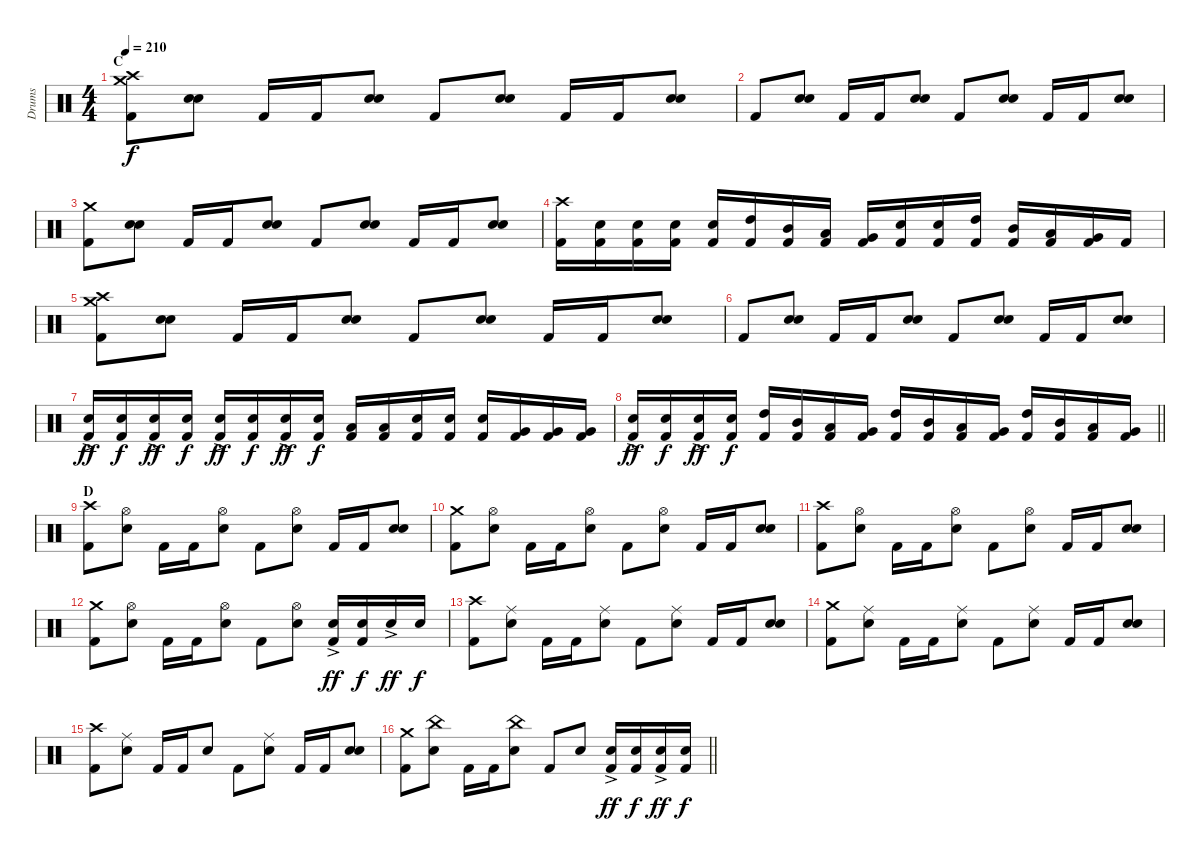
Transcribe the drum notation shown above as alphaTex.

\track ("Drums" "Drums") {instrument percussion}
\staff {score}
\articulation defaults
\ts (4 4)
\section ("" "C")
\tempo 210
\clef neutral
\ks c
("Crash medium (hit)" "Crash high (hit)" "Kick (hit) 2").8{dy f} ("Electric Snare (hit)" "Electric Snare (hit)").8{bu 60} "Kick (hit) 2".16 "Kick (hit) 2".16 ("Electric Snare (hit)" "Electric Snare (hit)").8{bu 60} "Kick (hit) 2".8 ("Electric Snare (hit)" "Electric Snare (hit)").8{bu 60} "Kick (hit) 2".16 "Kick (hit) 2".16 ("Electric Snare (hit)" "Electric Snare (hit)").8{bu 60} |
"Kick (hit) 2".8 ("Electric Snare (hit)" "Electric Snare (hit)").8{bu 60} "Kick (hit) 2".16 "Kick (hit) 2".16 ("Electric Snare (hit)" "Electric Snare (hit)").8{bu 60} "Kick (hit) 2".8 ("Electric Snare (hit)" "Electric Snare (hit)").8{bu 60} "Kick (hit) 2".16 "Kick (hit) 2".16 ("Electric Snare (hit)" "Electric Snare (hit)").8{bu 60} |
("Crash medium (hit)" "Kick (hit) 2").8 ("Electric Snare (hit)" "Electric Snare (hit)").8{bu 60} "Kick (hit) 2".16 "Kick (hit) 2".16 ("Electric Snare (hit)" "Electric Snare (hit)").8{bu 60} "Kick (hit) 2".8 ("Electric Snare (hit)" "Electric Snare (hit)").8{bu 60} "Kick (hit) 2".16 "Kick (hit) 2".16 ("Electric Snare (hit)" "Electric Snare (hit)").8{bu 60} |
("Crash high (hit)" "Kick (hit) 2").16 ("Electric Snare (hit)" "Kick (hit) 2").16 ("Electric Snare (hit)" "Kick (hit) 2").16 ("Electric Snare (hit)" "Kick (hit) 2").16 ("Electric Snare (hit)" "Kick (hit) 2").16 ("High Tom (hit)" "Kick (hit) 2").16 ("Mid Tom (hit)" "Kick (hit) 2").16 ("Low Tom (hit)" "Kick (hit) 2").16 ("Very Low Tom (hit)" "Kick (hit) 2").16 ("Electric Snare (hit)" "Kick (hit) 2").16 ("Electric Snare (hit)" "Kick (hit) 2").16 ("High Tom (hit)" "Kick (hit) 2").16 ("Mid Tom (hit)" "Kick (hit) 2").16 ("Low Tom (hit)" "Kick (hit) 2").16 ("Very Low Tom (hit)" "Kick (hit) 2").16 "Kick (hit) 2".16 |
("Crash medium (hit)" "Crash high (hit)" "Kick (hit) 2").8 ("Electric Snare (hit)" "Electric Snare (hit)").8{bu 60} "Kick (hit) 2".16 "Kick (hit) 2".16 ("Electric Snare (hit)" "Electric Snare (hit)").8{bu 60} "Kick (hit) 2".8 ("Electric Snare (hit)" "Electric Snare (hit)").8{bu 60} "Kick (hit) 2".16 "Kick (hit) 2".16 ("Electric Snare (hit)" "Electric Snare (hit)").8{bu 60} |
"Kick (hit) 2".8 ("Electric Snare (hit)" "Electric Snare (hit)").8{bu 60} "Kick (hit) 2".16 "Kick (hit) 2".16 ("Electric Snare (hit)" "Electric Snare (hit)").8{bu 60} "Kick (hit) 2".8 ("Electric Snare (hit)" "Electric Snare (hit)").8{bu 60} "Kick (hit) 2".16 "Kick (hit) 2".16 ("Electric Snare (hit)" "Electric Snare (hit)").8{bu 60} |
("Electric Snare (hit)"{ac} "Kick (hit) 2").16{dy ff} ("Electric Snare (hit)" "Kick (hit) 2").16{dy f} ("Electric Snare (hit)"{ac} "Kick (hit) 2").16{dy ff} ("Electric Snare (hit)" "Kick (hit) 2").16{dy f} ("Electric Snare (hit)"{ac} "Kick (hit) 2").16{dy ff} ("Electric Snare (hit)" "Kick (hit) 2").16{dy f} ("Electric Snare (hit)"{ac} "Kick (hit) 2").16{dy ff} ("Electric Snare (hit)" "Kick (hit) 2").16{dy f} ("Low Tom (hit)" "Kick (hit) 2").16 ("Low Tom (hit)" "Kick (hit) 2").16 ("Electric Snare (hit)" "Kick (hit) 2").16 ("Electric Snare (hit)" "Kick (hit) 2").16 ("Electric Snare (hit)" "Kick (hit) 2").16 ("Very Low Tom (hit)" "Kick (hit) 2").16 ("Very Low Tom (hit)" "Kick (hit) 2").16 ("Very Low Tom (hit)" "Kick (hit) 2").16 |
\barLineRight lightlight
("Electric Snare (hit)"{ac} "Kick (hit) 2").16{dy ff} ("Electric Snare (hit)" "Kick (hit) 2").16{dy f} ("Electric Snare (hit)"{ac} "Kick (hit) 2").16{dy ff} ("Electric Snare (hit)" "Kick (hit) 2").16{dy f} ("High Tom (hit)" "Kick (hit) 2").16 ("Mid Tom (hit)" "Kick (hit) 2").16 ("Low Tom (hit)" "Kick (hit) 2").16 ("Very Low Tom (hit)" "Kick (hit) 2").16 ("High Tom (hit)" "Kick (hit) 2").16 ("Mid Tom (hit)" "Kick (hit) 2").16 ("Low Tom (hit)" "Kick (hit) 2").16 ("Very Low Tom (hit)" "Kick (hit) 2").16 ("High Tom (hit)" "Kick (hit) 2").16 ("Mid Tom (hit)" "Kick (hit) 2").16 ("Low Tom (hit)" "Kick (hit) 2").16 ("Very Low Tom (hit)" "Kick (hit) 2").16 |
\section ("" "D")
("Crash high (hit)" "Kick (hit) 2").8 ("Hi-Hat (open)" "Electric Snare (hit)").8 "Kick (hit) 2".16 "Kick (hit) 2".16 ("Hi-Hat (open)" "Electric Snare (hit)").8 "Kick (hit) 2".8 ("Hi-Hat (open)" "Electric Snare (hit)").8 "Kick (hit) 2".16 "Kick (hit) 2".16 ("Electric Snare (hit)" "Electric Snare (hit)").8 |
("Crash medium (hit)" "Kick (hit) 2").8 ("Hi-Hat (open)" "Electric Snare (hit)").8 "Kick (hit) 2".16 "Kick (hit) 2".16 ("Hi-Hat (open)" "Electric Snare (hit)").8 "Kick (hit) 2".8 ("Hi-Hat (open)" "Electric Snare (hit)").8 "Kick (hit) 2".16 "Kick (hit) 2".16 ("Electric Snare (hit)" "Electric Snare (hit)").8 |
("Crash high (hit)" "Kick (hit) 2").8 ("Hi-Hat (open)" "Electric Snare (hit)").8 "Kick (hit) 2".16 "Kick (hit) 2".16 ("Hi-Hat (open)" "Electric Snare (hit)").8 "Kick (hit) 2".8 ("Hi-Hat (open)" "Electric Snare (hit)").8 "Kick (hit) 2".16 "Kick (hit) 2".16 ("Electric Snare (hit)" "Electric Snare (hit)").8 |
("Crash medium (hit)" "Kick (hit) 2").8 ("Hi-Hat (open)" "Electric Snare (hit)").8 "Kick (hit) 2".16 "Kick (hit) 2".16 ("Hi-Hat (open)" "Electric Snare (hit)").8 "Kick (hit) 2".8 ("Hi-Hat (open)" "Electric Snare (hit)").8 ("Electric Snare (hit)"{ac} "Kick (hit) 2").16{dy ff} ("Electric Snare (hit)" "Kick (hit) 2").16{dy f} "Electric Snare (hit)"{ac}.16{dy ff} "Electric Snare (hit)".16{dy f} |
("Crash high (hit)" "Kick (hit) 2").8 ("Ride (middle)" "Electric Snare (hit)").8 "Kick (hit) 2".16 "Kick (hit) 2".16 ("Ride (middle)" "Electric Snare (hit)").8 "Kick (hit) 2".8 ("Ride (middle)" "Electric Snare (hit)").8 "Kick (hit) 2".16 "Kick (hit) 2".16 ("Electric Snare (hit)" "Electric Snare (hit)").8 |
("Crash medium (hit)" "Kick (hit) 2").8 ("Ride (middle)" "Electric Snare (hit)").8 "Kick (hit) 2".16 "Kick (hit) 2".16 ("Ride (middle)" "Electric Snare (hit)").8 "Kick (hit) 2".8 ("Ride (middle)" "Electric Snare (hit)").8 "Kick (hit) 2".16 "Kick (hit) 2".16 ("Electric Snare (hit)" "Electric Snare (hit)").8 |
("Crash high (hit)" "Kick (hit) 2").8 ("Ride (middle)" "Electric Snare (hit)").8 "Kick (hit) 2".16 "Kick (hit) 2".16 "Electric Snare (hit)".8 "Kick (hit) 2".8 ("Ride (middle)" "Electric Snare (hit)").8 "Kick (hit) 2".16 "Kick (hit) 2".16 ("Electric Snare (hit)" "Electric Snare (hit)").8 |
\barLineRight lightlight
("Crash medium (hit)" "Kick (hit) 2").8 ("China (hit)" "Electric Snare (hit)").8 "Kick (hit) 2".16 "Kick (hit) 2".16 ("China (hit)" "Electric Snare (hit)").8 "Kick (hit) 2".8 "Electric Snare (hit)".8 ("Electric Snare (hit)"{ac} "Kick (hit) 2").16{dy ff} ("Electric Snare (hit)" "Kick (hit) 2").16{dy f} ("Electric Snare (hit)"{ac} "Kick (hit) 2").16{dy ff} ("Electric Snare (hit)" "Kick (hit) 2").16{dy f}
